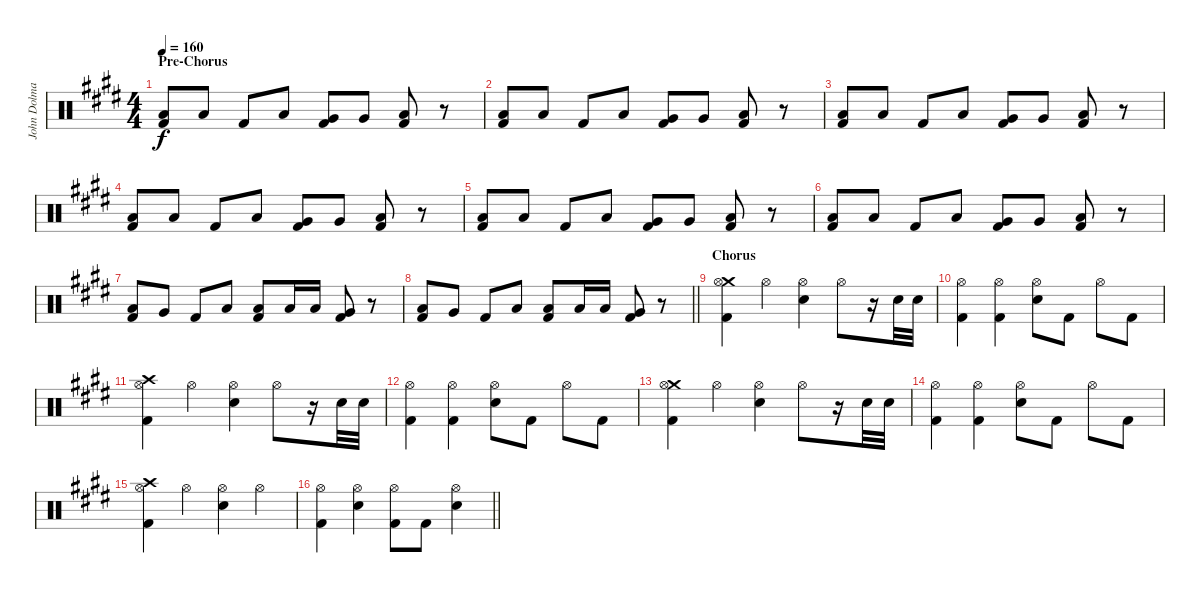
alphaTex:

\track ("John Dolmayan [Drums]" "John Dolma") {instrument percussion}
\staff {score}
\articulation defaults
\ts (4 4)
\section ("" "Pre-Chorus")
\tempo 160
\clef neutral
\ks c#minor
("Low Floor Tom (hit)" "Kick (hit) 2").8{dy f} "Low Floor Tom (hit)".8 "Kick (hit) 2".8 "Low Tom (hit)".8 ("Very Low Tom (hit)" "Kick (hit) 2").8 "Very Low Tom (hit)".8 ("Low Floor Tom (hit)" "Kick (hit) 2").8 r.8 |
("Low Floor Tom (hit)" "Kick (hit) 2").8 "Low Floor Tom (hit)".8 "Kick (hit) 2".8 "Low Tom (hit)".8 ("Very Low Tom (hit)" "Kick (hit) 2").8 "Very Low Tom (hit)".8 ("Low Floor Tom (hit)" "Kick (hit) 2").8 r.8 |
("Low Floor Tom (hit)" "Kick (hit) 2").8 "Low Floor Tom (hit)".8 "Kick (hit) 2".8 "Low Tom (hit)".8 ("Very Low Tom (hit)" "Kick (hit) 2").8 "Very Low Tom (hit)".8 ("Low Floor Tom (hit)" "Kick (hit) 2").8 r.8 |
("Low Floor Tom (hit)" "Kick (hit) 2").8 "Low Floor Tom (hit)".8 "Kick (hit) 2".8 "Low Tom (hit)".8 ("Very Low Tom (hit)" "Kick (hit) 2").8 "Very Low Tom (hit)".8 ("Low Floor Tom (hit)" "Kick (hit) 2").8 r.8 |
("Low Floor Tom (hit)" "Kick (hit) 2").8 "Low Floor Tom (hit)".8 "Kick (hit) 2".8 "Low Tom (hit)".8 ("Very Low Tom (hit)" "Kick (hit) 2").8 "Very Low Tom (hit)".8 ("Low Floor Tom (hit)" "Kick (hit) 2").8 r.8 |
("Low Floor Tom (hit)" "Kick (hit) 2").8 "Low Floor Tom (hit)".8 "Kick (hit) 2".8 "Low Tom (hit)".8 ("Very Low Tom (hit)" "Kick (hit) 2").8 "Very Low Tom (hit)".8 ("Low Floor Tom (hit)" "Kick (hit) 2").8 r.8 |
("Low Floor Tom (hit)" "Kick (hit) 2").8 "Very Low Tom (hit)".8 "Kick (hit) 2".8 "Low Tom (hit)".8 ("Low Floor Tom (hit)" "Kick (hit) 2").8 "Low Floor Tom (hit)".16 "Low Floor Tom (hit)".16 ("Very Low Tom (hit)" "Kick (hit) 2").8 r.8 |
\barLineRight lightlight
("Low Floor Tom (hit)" "Kick (hit) 2").8 "Very Low Tom (hit)".8 "Kick (hit) 2".8 "Low Tom (hit)".8 ("Low Floor Tom (hit)" "Kick (hit) 2").8 "Low Floor Tom (hit)".16 "Low Floor Tom (hit)".16 ("Very Low Tom (hit)" "Kick (hit) 2").8 r.8 |
\section ("" "Chorus")
("Crash medium (hit)" "Hi-Hat (open)" "Kick (hit) 2").4 "Hi-Hat (open)".4 ("Hi-Hat (open)" "Electric Snare (hit)").4 "Hi-Hat (open)".8 r.16 "Electric Snare (hit)".32 "Electric Snare (hit)".32 |
("Hi-Hat (open)" "Kick (hit) 2").4 ("Hi-Hat (open)" "Kick (hit) 2").4 ("Hi-Hat (open)" "Electric Snare (hit)").8 "Kick (hit) 2".8 "Hi-Hat (open)".8 "Kick (hit) 2".8 |
("Crash high (hit)" "Hi-Hat (open)" "Kick (hit) 2").4 "Hi-Hat (open)".4 ("Hi-Hat (open)" "Electric Snare (hit)").4 "Hi-Hat (open)".8 r.16 "Electric Snare (hit)".32 "Electric Snare (hit)".32 |
("Hi-Hat (open)" "Kick (hit) 2").4 ("Hi-Hat (open)" "Kick (hit) 2").4 ("Hi-Hat (open)" "Electric Snare (hit)").8 "Kick (hit) 2".8 "Hi-Hat (open)".8 "Kick (hit) 2".8 |
("Crash medium (hit)" "Hi-Hat (open)" "Kick (hit) 2").4 "Hi-Hat (open)".4 ("Hi-Hat (open)" "Electric Snare (hit)").4 "Hi-Hat (open)".8 r.16 "Electric Snare (hit)".32 "Electric Snare (hit)".32 |
("Hi-Hat (open)" "Kick (hit) 2").4 ("Hi-Hat (open)" "Kick (hit) 2").4 ("Hi-Hat (open)" "Electric Snare (hit)").8 "Kick (hit) 2".8 "Hi-Hat (open)".8 "Kick (hit) 2".8 |
("Crash high (hit)" "Hi-Hat (open)" "Kick (hit) 2").4 "Hi-Hat (open)".4 ("Hi-Hat (open)" "Electric Snare (hit)").4 "Hi-Hat (open)".4 |
\barLineRight lightlight
("Hi-Hat (open)" "Kick (hit) 2").4 ("Hi-Hat (open)" "Electric Snare (hit)").4 ("Hi-Hat (open)" "Kick (hit) 2").8 "Kick (hit) 2".8 ("Hi-Hat (open)" "Electric Snare (hit)").4
